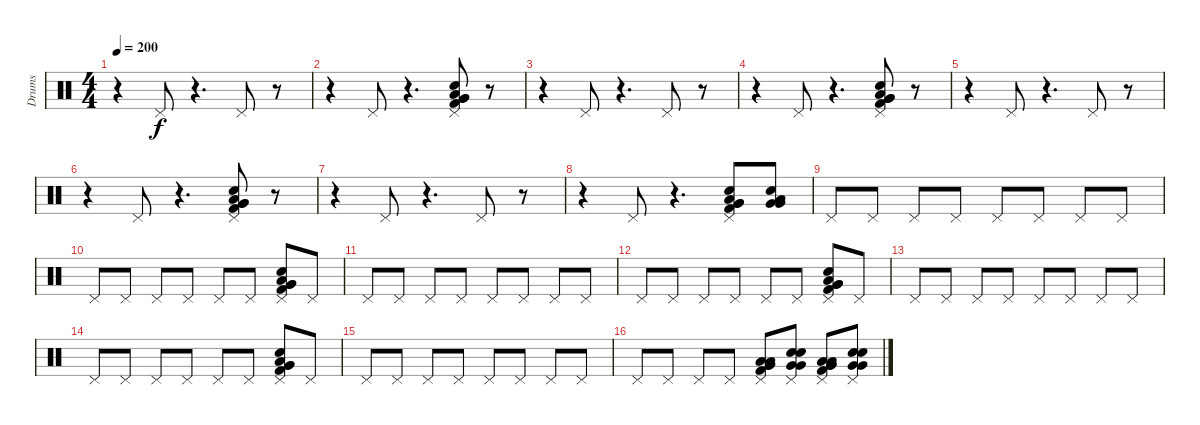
\track ("Drums" "Drums") {instrument percussion}
\staff {score}
\articulation defaults
\ts (4 4)
\tempo 200
\clef neutral
\ks c
r.4{dy f} "Pedal Hi-Hat (hit)".8 r.4{d} "Pedal Hi-Hat (hit)".8 r.8 |
r.4 "Pedal Hi-Hat (hit)".8 r.4{d} ("Very Low Tom (hit)" "Very Low Tom (hit)" "Low Floor Tom (hit)" "Electric Snare (hit)" "Pedal Hi-Hat (hit)" "Kick (hit) 2").8 r.8 |
r.4 "Pedal Hi-Hat (hit)".8 r.4{d} "Pedal Hi-Hat (hit)".8 r.8 |
r.4 "Pedal Hi-Hat (hit)".8 r.4{d} ("Very Low Tom (hit)" "Very Low Tom (hit)" "Low Floor Tom (hit)" "Electric Snare (hit)" "Pedal Hi-Hat (hit)" "Kick (hit) 2").8 r.8 |
r.4 "Pedal Hi-Hat (hit)".8 r.4{d} "Pedal Hi-Hat (hit)".8 r.8 |
r.4 "Pedal Hi-Hat (hit)".8 r.4{d} ("Very Low Tom (hit)" "Very Low Tom (hit)" "Low Floor Tom (hit)" "Electric Snare (hit)" "Pedal Hi-Hat (hit)" "Kick (hit) 2").8 r.8 |
r.4 "Pedal Hi-Hat (hit)".8 r.4{d} "Pedal Hi-Hat (hit)".8 r.8 |
r.4 "Pedal Hi-Hat (hit)".8 r.4{d} ("Very Low Tom (hit)" "Very Low Tom (hit)" "Low Floor Tom (hit)" "Electric Snare (hit)" "Pedal Hi-Hat (hit)" "Kick (hit) 2").8 ("Very Low Tom (hit)" "Very Low Tom (hit)" "Low Floor Tom (hit)" "Electric Snare (hit)").8 |
"Pedal Hi-Hat (hit)".8 "Pedal Hi-Hat (hit)".8 "Pedal Hi-Hat (hit)".8 "Pedal Hi-Hat (hit)".8 "Pedal Hi-Hat (hit)".8 "Pedal Hi-Hat (hit)".8 "Pedal Hi-Hat (hit)".8 "Pedal Hi-Hat (hit)".8 |
"Pedal Hi-Hat (hit)".8 "Pedal Hi-Hat (hit)".8 "Pedal Hi-Hat (hit)".8 "Pedal Hi-Hat (hit)".8 "Pedal Hi-Hat (hit)".8 "Pedal Hi-Hat (hit)".8 ("Very Low Tom (hit)" "Very Low Tom (hit)" "Low Floor Tom (hit)" "Electric Snare (hit)" "Pedal Hi-Hat (hit)" "Kick (hit) 2").8 "Pedal Hi-Hat (hit)".8 |
"Pedal Hi-Hat (hit)".8 "Pedal Hi-Hat (hit)".8 "Pedal Hi-Hat (hit)".8 "Pedal Hi-Hat (hit)".8 "Pedal Hi-Hat (hit)".8 "Pedal Hi-Hat (hit)".8 "Pedal Hi-Hat (hit)".8 "Pedal Hi-Hat (hit)".8 |
"Pedal Hi-Hat (hit)".8 "Pedal Hi-Hat (hit)".8 "Pedal Hi-Hat (hit)".8 "Pedal Hi-Hat (hit)".8 "Pedal Hi-Hat (hit)".8 "Pedal Hi-Hat (hit)".8 ("Very Low Tom (hit)" "Very Low Tom (hit)" "Low Floor Tom (hit)" "Electric Snare (hit)" "Pedal Hi-Hat (hit)" "Kick (hit) 2").8 "Pedal Hi-Hat (hit)".8 |
"Pedal Hi-Hat (hit)".8 "Pedal Hi-Hat (hit)".8 "Pedal Hi-Hat (hit)".8 "Pedal Hi-Hat (hit)".8 "Pedal Hi-Hat (hit)".8 "Pedal Hi-Hat (hit)".8 "Pedal Hi-Hat (hit)".8 "Pedal Hi-Hat (hit)".8 |
"Pedal Hi-Hat (hit)".8 "Pedal Hi-Hat (hit)".8 "Pedal Hi-Hat (hit)".8 "Pedal Hi-Hat (hit)".8 "Pedal Hi-Hat (hit)".8 "Pedal Hi-Hat (hit)".8 ("Very Low Tom (hit)" "Very Low Tom (hit)" "Low Floor Tom (hit)" "Electric Snare (hit)" "Pedal Hi-Hat (hit)" "Kick (hit) 2").8 "Pedal Hi-Hat (hit)".8 |
"Pedal Hi-Hat (hit)".8 "Pedal Hi-Hat (hit)".8 "Pedal Hi-Hat (hit)".8 "Pedal Hi-Hat (hit)".8 "Pedal Hi-Hat (hit)".8 "Pedal Hi-Hat (hit)".8 "Pedal Hi-Hat (hit)".8 "Pedal Hi-Hat (hit)".8 |
"Pedal Hi-Hat (hit)".8 "Pedal Hi-Hat (hit)".8 "Pedal Hi-Hat (hit)".8 "Pedal Hi-Hat (hit)".8 ("Very Low Tom (hit)" "Very Low Tom (hit)" "Low Floor Tom (hit)" "Low Floor Tom (hit)" "Pedal Hi-Hat (hit)" "Kick (hit) 2").8 ("Very Low Tom (hit)" "Very Low Tom (hit)" "Electric Snare (hit)" "Electric Snare (hit)" "Pedal Hi-Hat (hit)").8 ("Very Low Tom (hit)" "Very Low Tom (hit)" "Low Floor Tom (hit)" "Low Floor Tom (hit)" "Pedal Hi-Hat (hit)" "Kick (hit) 2").8 ("Very Low Tom (hit)" "Very Low Tom (hit)" "Electric Snare (hit)" "Electric Snare (hit)" "Pedal Hi-Hat (hit)").8
